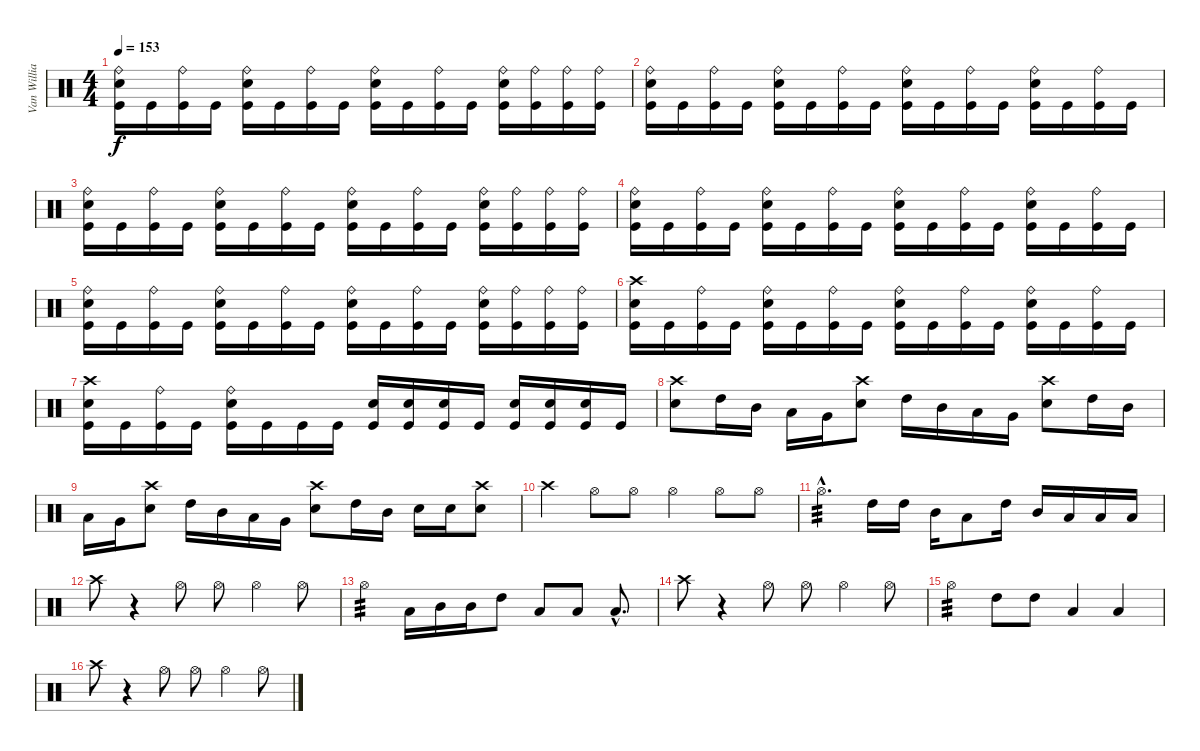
\track ("Van Williams" "Van Willia") {instrument percussion}
\staff {score}
\articulation defaults
\ts (4 4)
\tempo 153
\clef neutral
\ks c
("Ride (bell)" "Electric Snare (hit)" "Kick (hit)").16{dy f} "Kick (hit)".16 ("Ride (bell)" "Kick (hit)").16 "Kick (hit)".16 ("Ride (bell)" "Electric Snare (hit)" "Kick (hit)").16 "Kick (hit)".16 ("Ride (bell)" "Kick (hit)").16 "Kick (hit)".16 ("Ride (bell)" "Electric Snare (hit)" "Kick (hit)").16 "Kick (hit)".16 ("Ride (bell)" "Kick (hit)").16 "Kick (hit)".16 ("Ride (bell)" "Electric Snare (hit)" "Kick (hit)").16 ("Ride (bell)" "Kick (hit)").16 ("Ride (bell)" "Kick (hit)").16 ("Ride (bell)" "Kick (hit)").16 |
("Ride (bell)" "Electric Snare (hit)" "Kick (hit)").16 "Kick (hit)".16 ("Ride (bell)" "Kick (hit)").16 "Kick (hit)".16 ("Ride (bell)" "Electric Snare (hit)" "Kick (hit)").16 "Kick (hit)".16 ("Ride (bell)" "Kick (hit)").16 "Kick (hit)".16 ("Ride (bell)" "Electric Snare (hit)" "Kick (hit)").16 "Kick (hit)".16 ("Ride (bell)" "Kick (hit)").16 "Kick (hit)".16 ("Ride (bell)" "Electric Snare (hit)" "Kick (hit)").16 "Kick (hit)".16 ("Ride (bell)" "Kick (hit)").16 "Kick (hit)".16 |
("Ride (bell)" "Electric Snare (hit)" "Kick (hit)").16 "Kick (hit)".16 ("Ride (bell)" "Kick (hit)").16 "Kick (hit)".16 ("Ride (bell)" "Electric Snare (hit)" "Kick (hit)").16 "Kick (hit)".16 ("Ride (bell)" "Kick (hit)").16 "Kick (hit)".16 ("Ride (bell)" "Electric Snare (hit)" "Kick (hit)").16 "Kick (hit)".16 ("Ride (bell)" "Kick (hit)").16 "Kick (hit)".16 ("Ride (bell)" "Electric Snare (hit)" "Kick (hit)").16 ("Ride (bell)" "Kick (hit)").16 ("Ride (bell)" "Kick (hit)").16 ("Ride (bell)" "Kick (hit)").16 |
("Ride (bell)" "Electric Snare (hit)" "Kick (hit)").16 "Kick (hit)".16 ("Ride (bell)" "Kick (hit)").16 "Kick (hit)".16 ("Ride (bell)" "Electric Snare (hit)" "Kick (hit)").16 "Kick (hit)".16 ("Ride (bell)" "Kick (hit)").16 "Kick (hit)".16 ("Ride (bell)" "Electric Snare (hit)" "Kick (hit)").16 "Kick (hit)".16 ("Ride (bell)" "Kick (hit)").16 "Kick (hit)".16 ("Ride (bell)" "Electric Snare (hit)" "Kick (hit)").16 "Kick (hit)".16 ("Ride (bell)" "Kick (hit)").16 "Kick (hit)".16 |
("Ride (bell)" "Electric Snare (hit)" "Kick (hit)").16 "Kick (hit)".16 ("Ride (bell)" "Kick (hit)").16 "Kick (hit)".16 ("Ride (bell)" "Electric Snare (hit)" "Kick (hit)").16 "Kick (hit)".16 ("Ride (bell)" "Kick (hit)").16 "Kick (hit)".16 ("Ride (bell)" "Electric Snare (hit)" "Kick (hit)").16 "Kick (hit)".16 ("Ride (bell)" "Kick (hit)").16 "Kick (hit)".16 ("Ride (bell)" "Electric Snare (hit)" "Kick (hit)").16 ("Ride (bell)" "Kick (hit)").16 ("Ride (bell)" "Kick (hit)").16 ("Ride (bell)" "Kick (hit)").16 |
("Crash high (hit)" "Electric Snare (hit)" "Kick (hit)").16 "Kick (hit)".16 ("Ride (bell)" "Kick (hit)").16 "Kick (hit)".16 ("Ride (bell)" "Electric Snare (hit)" "Kick (hit)").16 "Kick (hit)".16 ("Ride (bell)" "Kick (hit)").16 "Kick (hit)".16 ("Ride (bell)" "Electric Snare (hit)" "Kick (hit)").16 "Kick (hit)".16 ("Ride (bell)" "Kick (hit)").16 "Kick (hit)".16 ("Ride (bell)" "Electric Snare (hit)" "Kick (hit)").16 "Kick (hit)".16 ("Ride (bell)" "Kick (hit)").16 "Kick (hit)".16 |
("Crash high (hit)" "Electric Snare (hit)" "Kick (hit)").16 "Kick (hit)".16 ("Ride (bell)" "Kick (hit)").16 "Kick (hit)".16 ("Ride (bell)" "Electric Snare (hit)" "Kick (hit)").16 "Kick (hit)".16 "Kick (hit)".16 "Kick (hit)".16 ("Electric Snare (hit)" "Kick (hit)").16 ("Electric Snare (hit)" "Kick (hit)").16 ("Electric Snare (hit)" "Kick (hit)").16 "Kick (hit)".16 ("Electric Snare (hit)" "Kick (hit)").16 ("Electric Snare (hit)" "Kick (hit)").16 ("Electric Snare (hit)" "Kick (hit)").16 "Kick (hit)".16 |
("Crash high (hit)" "Electric Snare (hit)").8 "High Tom (hit)".16 "Mid Tom (hit)".16 "Low Tom (hit)".16 "Very Low Tom (hit)".16 ("Crash high (hit)" "Electric Snare (hit)").8 "High Tom (hit)".16 "Mid Tom (hit)".16 "Low Tom (hit)".16 "Very Low Tom (hit)".16 ("Crash high (hit)" "Electric Snare (hit)").8 "High Tom (hit)".16 "Mid Tom (hit)".16 |
"Low Tom (hit)".16 "Very Low Tom (hit)".16 ("Crash high (hit)" "Electric Snare (hit)").8 "High Tom (hit)".16 "Mid Tom (hit)".16 "Low Tom (hit)".16 "Very Low Tom (hit)".16 ("Crash high (hit)" "Electric Snare (hit)").8 "High Tom (hit)".16 "Mid Tom (hit)".16 "Electric Snare (hit)".16 "Electric Snare (hit)".16 ("Crash high (hit)" "Electric Snare (hit)").8 |
"Crash high (hit)".4 "Hi-Hat (open)".8 "Hi-Hat (open)".8 "Hi-Hat (open)".4 "Hi-Hat (open)".8 "Hi-Hat (open)".8 |
"Hi-Hat (open)"{hac}.4{d tp 3} "High Tom (hit)".16 "High Tom (hit)".16 "Mid Tom (hit)".16 "Low Floor Tom (hit)".8 "High Tom (hit)".16 "Mid Tom (hit)".16 "Low Tom (hit)".16 "Low Floor Tom (hit)".16 "Low Floor Tom (hit)".16 |
"Crash high (hit)".8 r.4 "Hi-Hat (open)".8 "Hi-Hat (open)".8 "Hi-Hat (open)".4 "Hi-Hat (open)".8 |
"Hi-Hat (open)".4{tp 3} "Low Tom (hit)".16 "Mid Tom (hit)".16 "Mid Tom (hit)".16 "High Tom (hit)".8 "Low Tom (hit)".8 "Low Tom (hit)".8 "Low Tom (hit)"{hac}.8{d} |
"Crash high (hit)".8 r.4 "Hi-Hat (open)".8 "Hi-Hat (open)".8 "Hi-Hat (open)".4 "Hi-Hat (open)".8 |
"Hi-Hat (open)".4{tp 3} "High Tom (hit)".8 "High Tom (hit)".8 "Low Tom (hit)".4 "Low Floor Tom (hit)".4 |
"Crash high (hit)".8 r.4 "Hi-Hat (open)".8 "Hi-Hat (open)".8 "Hi-Hat (open)".4 "Hi-Hat (open)".8
